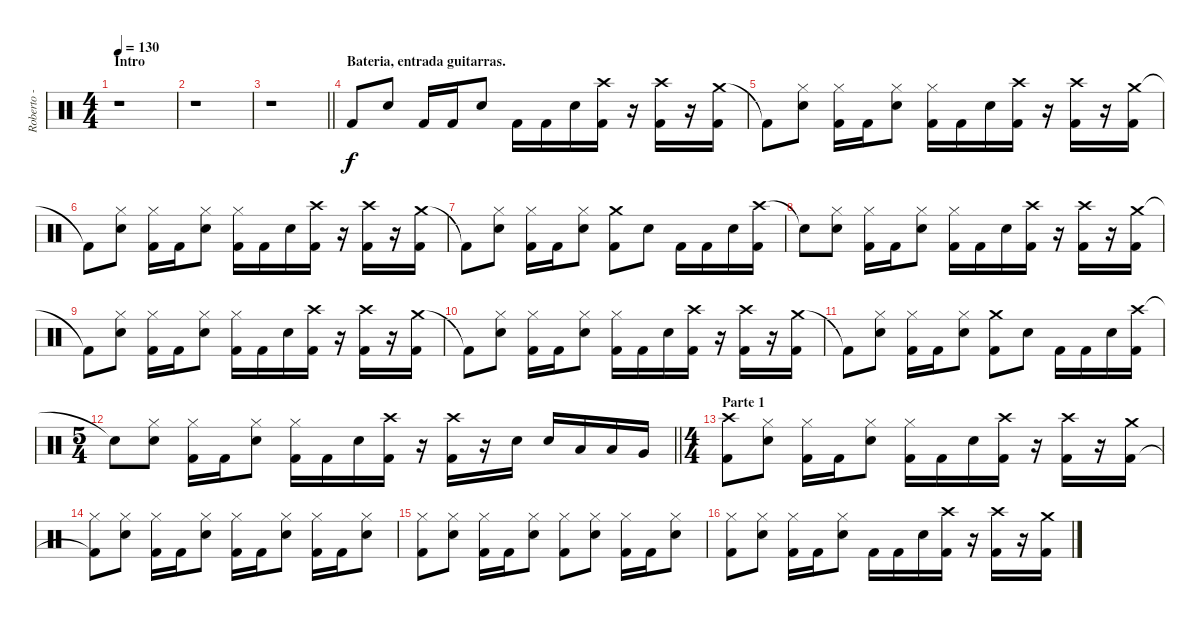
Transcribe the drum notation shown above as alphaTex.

\track ("Roberto - Bateria" "Roberto - ") {instrument percussion}
\staff {score}
\articulation defaults
\ts (4 4)
\section ("" "Intro")
\tempo 130
\clef neutral
\ks c
r.1{dy f} |
r.1 |
\barLineRight lightlight
r.1 |
\section ("" "Bateria, entrada guitarras.")
"Kick (hit) 2".8 "Snare (hit) 2".8 "Kick (hit) 2".16 "Kick (hit) 2".16 "Snare (hit) 2".8 "Kick (hit) 2".16 "Kick (hit) 2".16 "Snare (hit) 2".16 ("Crash high (hit)" "Kick (hit) 2").16 r.16 ("Crash high (hit)" "Kick (hit) 2").16 r.16 ("Crash medium (hit)" "Kick (hit) 2").16 |
"Kick (hit) 2"{t}.8 ("Hi-Hat (closed)" "Snare (hit) 2").8 ("Hi-Hat (closed)" "Kick (hit) 2").16 "Kick (hit) 2".16 ("Hi-Hat (closed)" "Snare (hit) 2").8 ("Hi-Hat (closed)" "Kick (hit) 2").16 "Kick (hit) 2".16 "Snare (hit) 2".16 ("Crash high (hit)" "Kick (hit) 2").16 r.16 ("Crash high (hit)" "Kick (hit) 2").16 r.16 ("Crash medium (hit)" "Kick (hit) 2").16 |
"Kick (hit) 2"{t}.8 ("Hi-Hat (closed)" "Snare (hit) 2").8 ("Hi-Hat (closed)" "Kick (hit) 2").16 "Kick (hit) 2".16 ("Hi-Hat (closed)" "Snare (hit) 2").8 ("Hi-Hat (closed)" "Kick (hit) 2").16 "Kick (hit) 2".16 "Snare (hit) 2".16 ("Crash high (hit)" "Kick (hit) 2").16 r.16 ("Crash high (hit)" "Kick (hit) 2").16 r.16 ("Crash medium (hit)" "Kick (hit) 2").16 |
"Kick (hit) 2"{t}.8 ("Hi-Hat (closed)" "Snare (hit) 2").8 ("Hi-Hat (closed)" "Kick (hit) 2").16 "Kick (hit) 2".16 ("Hi-Hat (closed)" "Snare (hit) 2").8 ("Crash medium (hit)" "Kick (hit) 2").8 "Snare (hit) 2".8 "Kick (hit) 2".16 "Kick (hit) 2".16 "Snare (hit) 2".16 ("Crash high (hit)" "Kick (hit) 2").16 |
"Snare (hit)"{t}.8 ("Hi-Hat (closed)" "Snare (hit) 2").8 ("Hi-Hat (closed)" "Kick (hit) 2").16 "Kick (hit) 2".16 ("Hi-Hat (closed)" "Snare (hit) 2").8 ("Hi-Hat (closed)" "Kick (hit) 2").16 "Kick (hit) 2".16 "Snare (hit) 2".16 ("Crash high (hit)" "Kick (hit) 2").16 r.16 ("Crash high (hit)" "Kick (hit) 2").16 r.16 ("Crash medium (hit)" "Kick (hit) 2").16 |
"Kick (hit) 2"{t}.8 ("Hi-Hat (closed)" "Snare (hit) 2").8 ("Hi-Hat (closed)" "Kick (hit) 2").16 "Kick (hit) 2".16 ("Hi-Hat (closed)" "Snare (hit) 2").8 ("Hi-Hat (closed)" "Kick (hit) 2").16 "Kick (hit) 2".16 "Snare (hit) 2".16 ("Crash high (hit)" "Kick (hit) 2").16 r.16 ("Crash high (hit)" "Kick (hit) 2").16 r.16 ("Crash medium (hit)" "Kick (hit) 2").16 |
"Kick (hit) 2"{t}.8 ("Hi-Hat (closed)" "Snare (hit) 2").8 ("Hi-Hat (closed)" "Kick (hit) 2").16 "Kick (hit) 2".16 ("Hi-Hat (closed)" "Snare (hit) 2").8 ("Hi-Hat (closed)" "Kick (hit) 2").16 "Kick (hit) 2".16 "Snare (hit) 2".16 ("Crash high (hit)" "Kick (hit) 2").16 r.16 ("Crash high (hit)" "Kick (hit) 2").16 r.16 ("Crash medium (hit)" "Kick (hit) 2").16 |
"Kick (hit) 2"{t}.8 ("Hi-Hat (closed)" "Snare (hit) 2").8 ("Hi-Hat (closed)" "Kick (hit) 2").16 "Kick (hit) 2".16 ("Hi-Hat (closed)" "Snare (hit) 2").8 ("Crash medium (hit)" "Kick (hit) 2").8 "Snare (hit) 2".8 "Kick (hit) 2".16 "Kick (hit) 2".16 "Snare (hit) 2".16 ("Crash high (hit)" "Kick (hit) 2").16 |
\ts (5 4)
\barLineRight lightlight "Snare (hit)"{t}.8
("Hi-Hat (closed)" "Snare (hit) 2").8 ("Hi-Hat (closed)" "Kick (hit) 2").16 "Kick (hit) 2".16 ("Hi-Hat (closed)" "Snare (hit) 2").8 ("Hi-Hat (closed)" "Kick (hit) 2").16 "Kick (hit) 2".16 "Snare (hit) 2".16 ("Crash high (hit)" "Kick (hit) 2").16 r.16 ("Crash high (hit)" "Kick (hit) 2").16 r.16 "Snare (hit) 2".16 "Snare (hit) 2".16 "Low Tom (hit)".16 "Low Tom (hit)".16 "Very Low Tom (hit)".16 |
\ts (4 4)
\section ("" "Parte 1")
("Crash high (hit)" "Kick (hit) 2").8 ("Hi-Hat (closed)" "Snare (hit) 2").8 ("Hi-Hat (closed)" "Kick (hit) 2").16 "Kick (hit) 2".16 ("Hi-Hat (closed)" "Snare (hit) 2").8 ("Hi-Hat (closed)" "Kick (hit) 2").16 "Kick (hit) 2".16 "Snare (hit) 2".16 ("Crash high (hit)" "Kick (hit) 2").16 r.16 ("Crash high (hit)" "Kick (hit) 2").16 r.16 ("Crash medium (hit)" "Kick (hit) 2").16 |
("Hi-Hat (closed)" "Kick (hit) 2"{t}).8 ("Hi-Hat (closed)" "Snare (hit) 2").8 ("Hi-Hat (closed)" "Kick (hit) 2").16 "Kick (hit) 2".16 ("Hi-Hat (closed)" "Snare (hit) 2").8 ("Hi-Hat (closed)" "Kick (hit) 2").16 "Kick (hit) 2".16 ("Hi-Hat (closed)" "Snare (hit) 2").8 ("Hi-Hat (closed)" "Kick (hit) 2").16 "Kick (hit) 2".16 ("Hi-Hat (closed)" "Snare (hit) 2").8 |
("Hi-Hat (closed)" "Kick (hit) 2").8 ("Hi-Hat (closed)" "Snare (hit) 2").8 ("Hi-Hat (closed)" "Kick (hit) 2").16 "Kick (hit) 2".16 ("Hi-Hat (closed)" "Snare (hit) 2").8 ("Hi-Hat (closed)" "Kick (hit) 2").8 ("Hi-Hat (closed)" "Snare (hit) 2").8 ("Hi-Hat (closed)" "Kick (hit) 2").16 "Kick (hit) 2".16 ("Hi-Hat (closed)" "Snare (hit) 2").8 |
("Hi-Hat (closed)" "Kick (hit) 2").8 ("Hi-Hat (closed)" "Snare (hit) 2").8 ("Hi-Hat (closed)" "Kick (hit) 2").16 "Kick (hit) 2".16 ("Hi-Hat (closed)" "Snare (hit) 2").8 "Kick (hit) 2".16 "Kick (hit) 2".16 "Snare (hit) 2".16 ("Crash high (hit)" "Kick (hit) 2").16 r.16 ("Crash high (hit)" "Kick (hit) 2").16 r.16 ("Crash medium (hit)" "Kick (hit) 2").16
